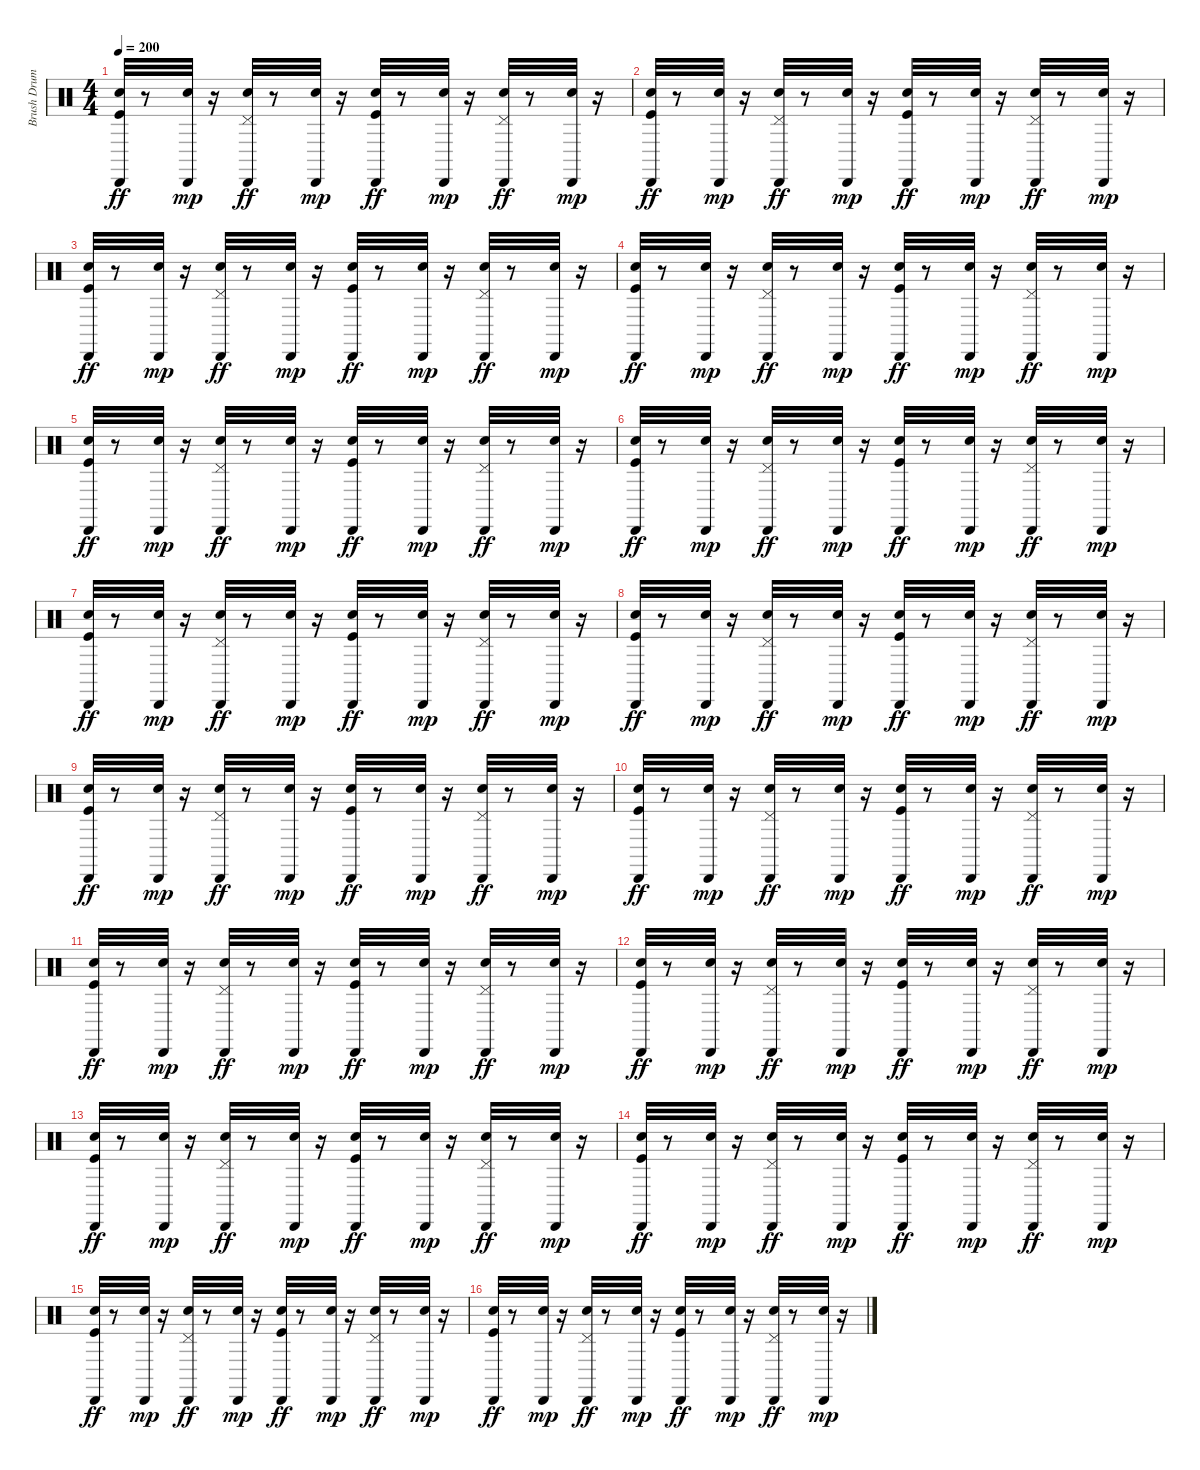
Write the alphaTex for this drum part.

\track ("Brush Drums" "Brush Drum") {instrument percussion}
\staff {score}
\articulation defaults
\ts (4 4)
\tempo 200
\clef neutral
\ks c
("Cabasa (hit)" "Kick (hit)" "Snare (hit) 2").32{dy ff} r.8 ("Cabasa (hit)" "Snare (hit) 2").32{dy mp} r.16 ("Cabasa (hit)" "Pedal Hi-Hat (hit)" "Hand Clap (hit)").32{dy ff} r.8 ("Cabasa (hit)" "Snare (hit) 2").32{dy mp} r.16 ("Cabasa (hit)" "Kick (hit)" "Snare (hit) 2").32{dy ff} r.8 ("Cabasa (hit)" "Snare (hit) 2").32{dy mp} r.16 ("Cabasa (hit)" "Pedal Hi-Hat (hit)" "Hand Clap (hit)").32{dy ff} r.8 ("Cabasa (hit)" "Snare (hit) 2").32{dy mp} r.16 |
("Cabasa (hit)" "Snare (hit) 2" "Kick (hit)").32{dy ff} r.8 ("Cabasa (hit)" "Snare (hit) 2").32{dy mp} r.16 ("Cabasa (hit)" "Hand Clap (hit)" "Pedal Hi-Hat (hit)").32{dy ff} r.8 ("Cabasa (hit)" "Snare (hit) 2").32{dy mp} r.16 ("Cabasa (hit)" "Kick (hit)" "Snare (hit) 2").32{dy ff} r.8 ("Cabasa (hit)" "Snare (hit) 2").32{dy mp} r.16 ("Cabasa (hit)" "Hand Clap (hit)" "Pedal Hi-Hat (hit)").32{dy ff} r.8 ("Cabasa (hit)" "Snare (hit) 2").32{dy mp} r.16 |
("Cabasa (hit)" "Snare (hit) 2" "Kick (hit)").32{dy ff} r.8 ("Cabasa (hit)" "Snare (hit) 2").32{dy mp} r.16 ("Cabasa (hit)" "Hand Clap (hit)" "Pedal Hi-Hat (hit)").32{dy ff} r.8 ("Cabasa (hit)" "Snare (hit) 2").32{dy mp} r.16 ("Cabasa (hit)" "Kick (hit)" "Snare (hit) 2").32{dy ff} r.8 ("Cabasa (hit)" "Snare (hit) 2").32{dy mp} r.16 ("Cabasa (hit)" "Hand Clap (hit)" "Pedal Hi-Hat (hit)").32{dy ff} r.8 ("Cabasa (hit)" "Snare (hit) 2").32{dy mp} r.16 |
("Cabasa (hit)" "Snare (hit) 2" "Kick (hit)").32{dy ff} r.8 ("Cabasa (hit)" "Snare (hit) 2").32{dy mp} r.16 ("Cabasa (hit)" "Pedal Hi-Hat (hit)" "Hand Clap (hit)").32{dy ff} r.8 ("Cabasa (hit)" "Snare (hit) 2").32{dy mp} r.16 ("Cabasa (hit)" "Kick (hit)" "Snare (hit) 2").32{dy ff} r.8 ("Cabasa (hit)" "Snare (hit) 2").32{dy mp} r.16 ("Cabasa (hit)" "Pedal Hi-Hat (hit)" "Hand Clap (hit)").32{dy ff} r.8 ("Cabasa (hit)" "Snare (hit) 2").32{dy mp} r.16 |
("Cabasa (hit)" "Snare (hit) 2" "Kick (hit)").32{dy ff} r.8 ("Cabasa (hit)" "Snare (hit) 2").32{dy mp} r.16 ("Cabasa (hit)" "Pedal Hi-Hat (hit)" "Hand Clap (hit)").32{dy ff} r.8 ("Cabasa (hit)" "Snare (hit) 2").32{dy mp} r.16 ("Cabasa (hit)" "Snare (hit) 2" "Kick (hit)").32{dy ff} r.8 ("Cabasa (hit)" "Snare (hit) 2").32{dy mp} r.16 ("Cabasa (hit)" "Hand Clap (hit)" "Pedal Hi-Hat (hit)").32{dy ff} r.8 ("Cabasa (hit)" "Snare (hit) 2").32{dy mp} r.16 |
("Cabasa (hit)" "Kick (hit)" "Snare (hit) 2").32{dy ff} r.8 ("Cabasa (hit)" "Snare (hit) 2").32{dy mp} r.16 ("Cabasa (hit)" "Hand Clap (hit)" "Pedal Hi-Hat (hit)").32{dy ff} r.8 ("Cabasa (hit)" "Snare (hit) 2").32{dy mp} r.16 ("Cabasa (hit)" "Kick (hit)" "Snare (hit) 2").32{dy ff} r.8 ("Cabasa (hit)" "Snare (hit) 2").32{dy mp} r.16 ("Cabasa (hit)" "Hand Clap (hit)" "Pedal Hi-Hat (hit)").32{dy ff} r.8 ("Cabasa (hit)" "Snare (hit) 2").32{dy mp} r.16 |
("Cabasa (hit)" "Snare (hit) 2" "Kick (hit)").32{dy ff} r.8 ("Cabasa (hit)" "Snare (hit) 2").32{dy mp} r.16 ("Cabasa (hit)" "Pedal Hi-Hat (hit)" "Hand Clap (hit)").32{dy ff} r.8 ("Cabasa (hit)" "Snare (hit) 2").32{dy mp} r.16 ("Cabasa (hit)" "Snare (hit) 2" "Kick (hit)").32{dy ff} r.8 ("Cabasa (hit)" "Snare (hit) 2").32{dy mp} r.16 ("Cabasa (hit)" "Pedal Hi-Hat (hit)" "Hand Clap (hit)").32{dy ff} r.8 ("Cabasa (hit)" "Snare (hit) 2").32{dy mp} r.16 |
("Cabasa (hit)" "Kick (hit)" "Snare (hit) 2").32{dy ff} r.8 ("Cabasa (hit)" "Snare (hit) 2").32{dy mp} r.16 ("Cabasa (hit)" "Pedal Hi-Hat (hit)" "Hand Clap (hit)").32{dy ff} r.8 ("Cabasa (hit)" "Snare (hit) 2").32{dy mp} r.16 ("Cabasa (hit)" "Kick (hit)" "Snare (hit) 2").32{dy ff} r.8 ("Cabasa (hit)" "Snare (hit) 2").32{dy mp} r.16 ("Cabasa (hit)" "Hand Clap (hit)" "Pedal Hi-Hat (hit)").32{dy ff} r.8 ("Cabasa (hit)" "Snare (hit) 2").32{dy mp} r.16 |
("Cabasa (hit)" "Kick (hit)" "Snare (hit) 2").32{dy ff} r.8 ("Cabasa (hit)" "Snare (hit) 2").32{dy mp} r.16 ("Cabasa (hit)" "Hand Clap (hit)" "Pedal Hi-Hat (hit)").32{dy ff} r.8 ("Cabasa (hit)" "Snare (hit) 2").32{dy mp} r.16 ("Cabasa (hit)" "Snare (hit) 2" "Kick (hit)").32{dy ff} r.8 ("Cabasa (hit)" "Hand Clap (hit)").32{dy mp} r.16 ("Cabasa (hit)" "Pedal Hi-Hat (hit)" "Hand Clap (hit)").32{dy ff} r.8 ("Cabasa (hit)" "Snare (hit) 2").32{dy mp} r.16 |
("Cabasa (hit)" "Snare (hit) 2" "Kick (hit)").32{dy ff} r.8 ("Cabasa (hit)" "Snare (hit) 2").32{dy mp} r.16 ("Cabasa (hit)" "Pedal Hi-Hat (hit)" "Hand Clap (hit)").32{dy ff} r.8 ("Cabasa (hit)" "Snare (hit) 2").32{dy mp} r.16 ("Cabasa (hit)" "Snare (hit) 2" "Kick (hit)").32{dy ff} r.8 ("Cabasa (hit)" "Snare (hit) 2").32{dy mp} r.16 ("Cabasa (hit)" "Pedal Hi-Hat (hit)" "Hand Clap (hit)").32{dy ff} r.8 ("Cabasa (hit)" "Snare (hit) 2").32{dy mp} r.16 |
("Cabasa (hit)" "Kick (hit)" "Snare (hit) 2").32{dy ff} r.8 ("Cabasa (hit)" "Snare (hit) 2").32{dy mp} r.16 ("Cabasa (hit)" "Pedal Hi-Hat (hit)" "Hand Clap (hit)").32{dy ff} r.8 ("Cabasa (hit)" "Snare (hit) 2").32{dy mp} r.16 ("Cabasa (hit)" "Snare (hit) 2" "Kick (hit)").32{dy ff} r.8 ("Cabasa (hit)" "Snare (hit) 2").32{dy mp} r.16 ("Cabasa (hit)" "Hand Clap (hit)" "Pedal Hi-Hat (hit)").32{dy ff} r.8 ("Cabasa (hit)" "Snare (hit) 2").32{dy mp} r.16 |
("Cabasa (hit)" "Snare (hit) 2" "Kick (hit)").32{dy ff} r.8 ("Cabasa (hit)" "Snare (hit) 2").32{dy mp} r.16 ("Cabasa (hit)" "Hand Clap (hit)" "Pedal Hi-Hat (hit)").32{dy ff} r.8 ("Cabasa (hit)" "Snare (hit) 2").32{dy mp} r.16 ("Cabasa (hit)" "Kick (hit)" "Snare (hit) 2").32{dy ff} r.8 ("Cabasa (hit)" "Snare (hit) 2").32{dy mp} r.16 ("Cabasa (hit)" "Hand Clap (hit)" "Pedal Hi-Hat (hit)").32{dy ff} r.8 ("Cabasa (hit)" "Snare (hit) 2").32{dy mp} r.16 |
("Cabasa (hit)" "Kick (hit)" "Snare (hit) 2").32{dy ff} r.8 ("Cabasa (hit)" "Snare (hit) 2").32{dy mp} r.16 ("Cabasa (hit)" "Hand Clap (hit)" "Pedal Hi-Hat (hit)").32{dy ff} r.8 ("Cabasa (hit)" "Snare (hit) 2").32{dy mp} r.16 ("Cabasa (hit)" "Kick (hit)" "Snare (hit) 2").32{dy ff} r.8 ("Cabasa (hit)" "Snare (hit) 2").32{dy mp} r.16 ("Cabasa (hit)" "Hand Clap (hit)" "Pedal Hi-Hat (hit)").32{dy ff} r.8 ("Cabasa (hit)" "Snare (hit) 2").32{dy mp} r.16 |
("Cabasa (hit)" "Kick (hit)" "Snare (hit) 2").32{dy ff} r.8 ("Cabasa (hit)" "Snare (hit) 2").32{dy mp} r.16 ("Cabasa (hit)" "Hand Clap (hit)" "Pedal Hi-Hat (hit)").32{dy ff} r.8 ("Cabasa (hit)" "Snare (hit) 2").32{dy mp} r.16 ("Cabasa (hit)" "Kick (hit)" "Snare (hit) 2").32{dy ff} r.8 ("Cabasa (hit)" "Snare (hit) 2").32{dy mp} r.16 ("Cabasa (hit)" "Hand Clap (hit)" "Pedal Hi-Hat (hit)").32{dy ff} r.8 ("Cabasa (hit)" "Snare (hit) 2").32{dy mp} r.16 |
("Cabasa (hit)" "Snare (hit) 2" "Kick (hit)").32{dy ff} r.8 ("Cabasa (hit)" "Snare (hit) 2").32{dy mp} r.16 ("Cabasa (hit)" "Hand Clap (hit)" "Pedal Hi-Hat (hit)").32{dy ff} r.8 ("Cabasa (hit)" "Snare (hit) 2").32{dy mp} r.16 ("Cabasa (hit)" "Kick (hit)" "Snare (hit) 2").32{dy ff} r.8 ("Cabasa (hit)" "Snare (hit) 2").32{dy mp} r.16 ("Cabasa (hit)" "Hand Clap (hit)" "Pedal Hi-Hat (hit)").32{dy ff} r.8 ("Cabasa (hit)" "Snare (hit) 2").32{dy mp} r.16 |
("Cabasa (hit)" "Snare (hit) 2" "Kick (hit)").32{dy ff} r.8 ("Cabasa (hit)" "Snare (hit) 2").32{dy mp} r.16 ("Cabasa (hit)" "Pedal Hi-Hat (hit)" "Hand Clap (hit)").32{dy ff} r.8 ("Cabasa (hit)" "Snare (hit) 2").32{dy mp} r.16 ("Cabasa (hit)" "Snare (hit) 2" "Kick (hit)").32{dy ff} r.8 ("Cabasa (hit)" "Snare (hit) 2").32{dy mp} r.16 ("Cabasa (hit)" "Pedal Hi-Hat (hit)" "Hand Clap (hit)").32{dy ff} r.8 ("Cabasa (hit)" "Snare (hit) 2").32{dy mp} r.16
